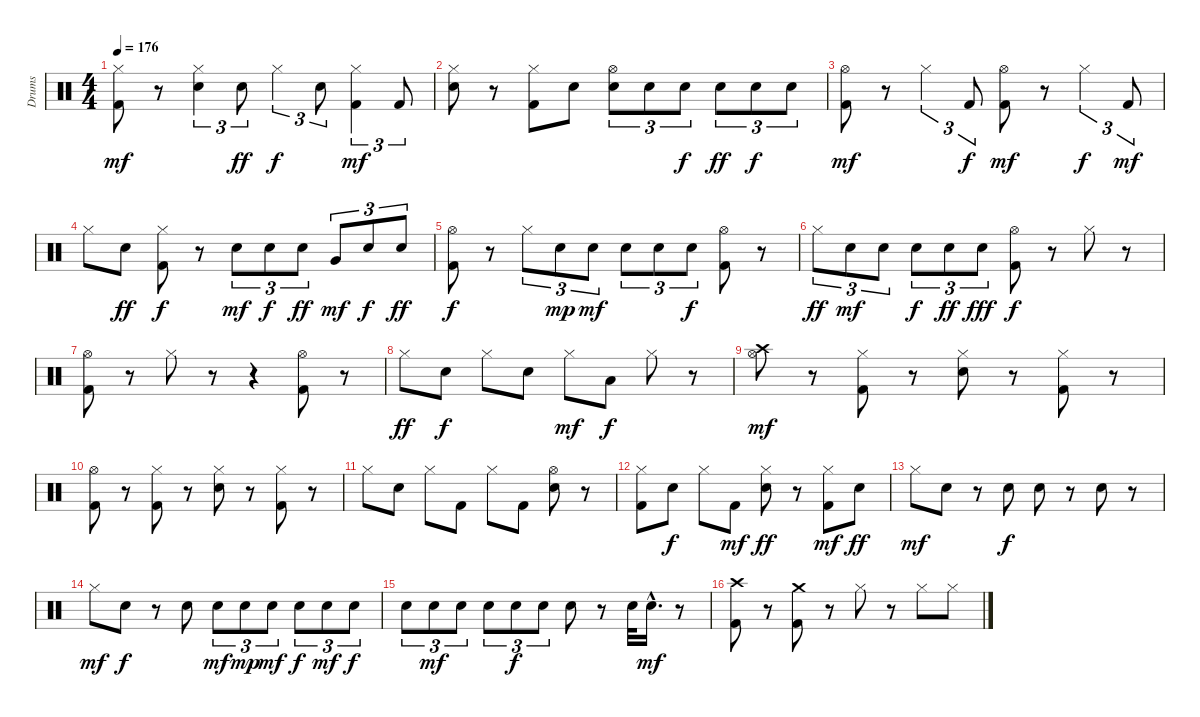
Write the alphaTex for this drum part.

\track ("Drums" "Drums") {instrument percussion}
\staff {score}
\articulation defaults
\ts (4 4)
\tempo 176
\clef neutral
\ks c
("Hi-Hat (closed)" "Kick (hit) 2").8{dy mf} r.8 ("Hi-Hat (closed)" "Snare (hit) 2").4{tu (3 2)} "Snare (hit) 2".8{tu (3 2) dy ff} "Hi-Hat (closed)".4{tu (3 2) dy f} "Snare (hit) 2".8{tu (3 2)} ("Hi-Hat (closed)" "Kick (hit) 2").4{tu (3 2) dy mf} "Kick (hit) 2".8{tu (3 2)} |
("Hi-Hat (closed)" "Snare (hit) 2").8 r.8 ("Hi-Hat (closed)" "Kick (hit) 2").8 "Snare (hit) 2".8 ("Hi-Hat (open)" "Snare (hit) 2").8{tu (3 2)} "Snare (hit) 2".8{tu (3 2)} "Snare (hit) 2".8{tu (3 2) dy f} "Snare (hit) 2".8{tu (3 2) dy ff} "Snare (hit) 2".8{tu (3 2) dy f} "Snare (hit) 2".8{tu (3 2)} |
("Hi-Hat (open)" "Kick (hit) 2").8{dy mf} r.8 "Hi-Hat (closed)".4{tu (3 2)} "Kick (hit) 2".8{tu (3 2) dy f} ("Hi-Hat (open)" "Kick (hit) 2").8{dy mf} r.8 "Hi-Hat (closed)".4{tu (3 2) dy f} "Kick (hit) 2".8{tu (3 2) dy mf} |
"Hi-Hat (closed)".8 "Snare (hit) 2".8{dy ff} ("Hi-Hat (closed)" "Kick (hit) 2").8{dy f} r.8 "Snare (hit) 2".8{tu (3 2) dy mf} "Snare (hit) 2".8{tu (3 2) dy f} "Snare (hit) 2".8{tu (3 2) dy ff} "Very Low Tom (hit)".8{tu (3 2) dy mf} "Snare (hit) 2".8{tu (3 2) dy f} "Snare (hit) 2".8{tu (3 2) dy ff} |
("Hi-Hat (open)" "Kick (hit) 2").8{dy f} r.8 "Hi-Hat (closed)".8{tu (3 2)} "Snare (hit) 2".8{tu (3 2) dy mp} "Snare (hit) 2".8{tu (3 2) dy mf} "Snare (hit) 2".8{tu (3 2)} "Snare (hit) 2".8{tu (3 2)} "Snare (hit) 2".8{tu (3 2) dy f} ("Hi-Hat (open)" "Kick (hit) 2").8 r.8 |
"Hi-Hat (closed)".8{tu (3 2) dy ff} "Snare (hit) 2".8{tu (3 2) dy mf} "Snare (hit) 2".8{tu (3 2)} "Snare (hit) 2".8{tu (3 2) dy f} "Snare (hit) 2".8{tu (3 2) dy ff} "Snare (hit) 2".8{tu (3 2) dy fff} ("Hi-Hat (open)" "Kick (hit) 2").8{dy f} r.8 "Hi-Hat (closed)".8 r.8 |
("Hi-Hat (open)" "Kick (hit) 2").8 r.8 "Hi-Hat (closed)".8 r.8 r.4 ("Hi-Hat (open)" "Kick (hit) 2").8 r.8 |
"Hi-Hat (closed)".8{dy ff} "Snare (hit) 2".8{dy f} "Hi-Hat (closed)".8 "Snare (hit) 2".8 "Hi-Hat (closed)".8{dy mf} "Low Tom (hit)".8{dy f} "Hi-Hat (closed)".8 r.8 |
("Crash high (hit)" "Hi-Hat (open)").8{dy mf} r.8 ("Hi-Hat (closed)" "Kick (hit) 2").8 r.8 ("Hi-Hat (closed)" "Snare (hit) 2").8 r.8 ("Hi-Hat (closed)" "Kick (hit) 2").8 r.8 |
("Hi-Hat (open)" "Kick (hit) 2").8 r.8 ("Hi-Hat (closed)" "Kick (hit) 2").8 r.8 ("Hi-Hat (closed)" "Snare (hit) 2").8 r.8 ("Hi-Hat (closed)" "Kick (hit) 2").8 r.8 |
"Hi-Hat (closed)".8 "Snare (hit) 2".8 "Hi-Hat (closed)".8 "Kick (hit) 2".8 "Hi-Hat (closed)".8 "Kick (hit) 2".8 ("Hi-Hat (open)" "Snare (hit) 2").8 r.8 |
("Hi-Hat (closed)" "Kick (hit) 2").8 "Snare (hit) 2".8{dy f} "Hi-Hat (closed)".8 "Kick (hit) 2".8{dy mf} ("Hi-Hat (closed)" "Snare (hit) 2").8{dy ff} r.8 ("Hi-Hat (closed)" "Kick (hit) 2").8{dy mf} "Snare (hit) 2".8{dy ff} |
"Hi-Hat (closed)".8{dy mf} "Snare (hit) 2".8 r.8 "Snare (hit) 2".8{dy f} "Snare (hit) 2".8 r.8 "Snare (hit) 2".8 r.8 |
"Hi-Hat (closed)".8{dy mf} "Snare (hit) 2".8{dy f} r.8 "Snare (hit) 2".8 "Snare (hit) 2".8{tu (3 2) dy mf} "Snare (hit) 2".8{tu (3 2) dy mp} "Snare (hit) 2".8{tu (3 2) dy mf} "Snare (hit) 2".8{tu (3 2) dy f} "Snare (hit) 2".8{tu (3 2) dy mf} "Snare (hit) 2".8{tu (3 2) dy f} |
"Snare (hit) 2".8{tu (3 2)} "Snare (hit) 2".8{tu (3 2) dy mf} "Snare (hit) 2".8{tu (3 2)} "Snare (hit) 2".8{tu (3 2)} "Snare (hit) 2".8{tu (3 2) dy f} "Snare (hit) 2".8{tu (3 2)} "Snare (hit) 2".8 r.8 "Snare (hit) 2".32 "Snare (hit) 2"{hac}.16{d dy mf} r.8 |
("Crash high (hit)" "Kick (hit) 2").8 r.8 ("Crash medium (hit)" "Kick (hit) 2").8 r.8 "Hi-Hat (closed)".8 r.8 "Hi-Hat (closed)".8 "Hi-Hat (closed)".8
